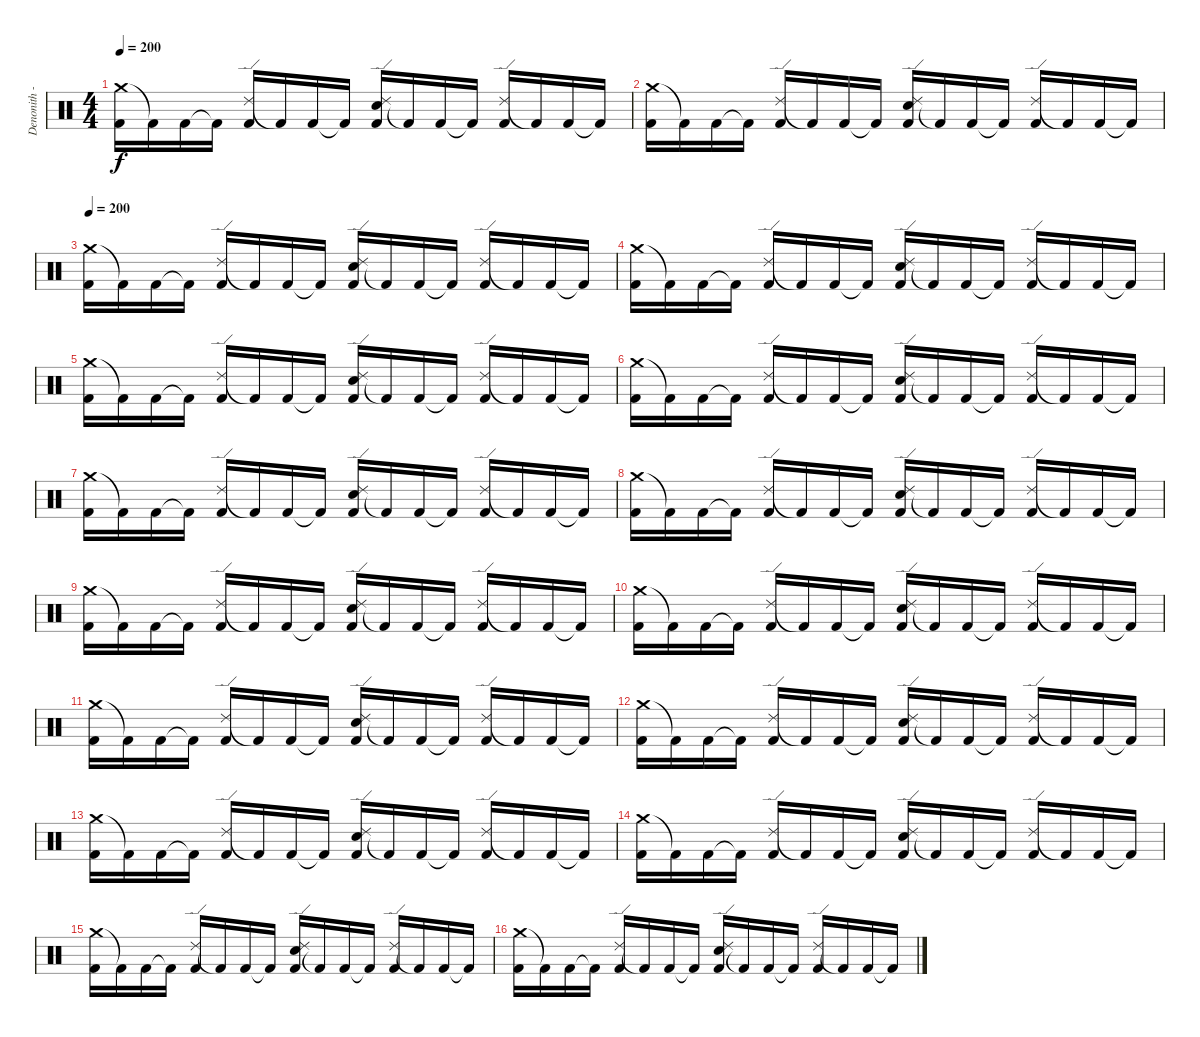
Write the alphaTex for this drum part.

\track ("Denonith - Spyros" "Denonith -") {instrument percussion}
\staff {score}
\articulation defaults
\ts (4 4)
\tempo 200
\clef neutral
\ks c
("Crash medium (hit)" "Kick (hit) 2").16{dy f} "Kick (hit) 2"{t}.16 "Kick (hit) 2".16 "Kick (hit) 2"{t}.16 ("Ride (edge) 2" "Kick (hit) 2").16 "Kick (hit) 2"{t}.16 "Kick (hit) 2".16 "Kick (hit) 2"{t}.16 ("Ride (edge) 2" "Electric Snare (hit)" "Kick (hit) 2").16 "Kick (hit) 2"{t}.16 "Kick (hit) 2".16 "Kick (hit) 2"{t}.16 ("Ride (edge) 2" "Kick (hit) 2").16 "Kick (hit) 2"{t}.16 "Kick (hit) 2".16 "Kick (hit) 2"{t}.16 |
("Crash medium (hit)" "Kick (hit) 2").16 "Kick (hit) 2"{t}.16 "Kick (hit) 2".16 "Kick (hit) 2"{t}.16 ("Ride (edge) 2" "Kick (hit) 2").16 "Kick (hit) 2"{t}.16 "Kick (hit) 2".16 "Kick (hit) 2"{t}.16 ("Ride (edge) 2" "Electric Snare (hit)" "Kick (hit) 2").16 "Kick (hit) 2"{t}.16 "Kick (hit) 2".16 "Kick (hit) 2"{t}.16 ("Ride (edge) 2" "Kick (hit) 2").16 "Kick (hit) 2"{t}.16 "Kick (hit) 2".16 "Kick (hit) 2"{t}.16 |
\tempo 200
("Crash medium (hit)" "Kick (hit) 2").16 "Kick (hit) 2"{t}.16 "Kick (hit) 2".16 "Kick (hit) 2"{t}.16 ("Ride (edge) 2" "Kick (hit) 2").16 "Kick (hit) 2"{t}.16 "Kick (hit) 2".16 "Kick (hit) 2"{t}.16 ("Ride (edge) 2" "Electric Snare (hit)" "Kick (hit) 2").16 "Kick (hit) 2"{t}.16 "Kick (hit) 2".16 "Kick (hit) 2"{t}.16 ("Ride (edge) 2" "Kick (hit) 2").16 "Kick (hit) 2"{t}.16 "Kick (hit) 2".16 "Kick (hit) 2"{t}.16 |
("Crash medium (hit)" "Kick (hit) 2").16 "Kick (hit) 2"{t}.16 "Kick (hit) 2".16 "Kick (hit) 2"{t}.16 ("Ride (edge) 2" "Kick (hit) 2").16 "Kick (hit) 2"{t}.16 "Kick (hit) 2".16 "Kick (hit) 2"{t}.16 ("Ride (edge) 2" "Electric Snare (hit)" "Kick (hit) 2").16 "Kick (hit) 2"{t}.16 "Kick (hit) 2".16 "Kick (hit) 2"{t}.16 ("Ride (edge) 2" "Kick (hit) 2").16 "Kick (hit) 2"{t}.16 "Kick (hit) 2".16 "Kick (hit) 2"{t}.16 |
("Crash medium (hit)" "Kick (hit) 2").16 "Kick (hit) 2"{t}.16 "Kick (hit) 2".16 "Kick (hit) 2"{t}.16 ("Ride (edge) 2" "Kick (hit) 2").16 "Kick (hit) 2"{t}.16 "Kick (hit) 2".16 "Kick (hit) 2"{t}.16 ("Ride (edge) 2" "Electric Snare (hit)" "Kick (hit) 2").16 "Kick (hit) 2"{t}.16 "Kick (hit) 2".16 "Kick (hit) 2"{t}.16 ("Ride (edge) 2" "Kick (hit) 2").16 "Kick (hit) 2"{t}.16 "Kick (hit) 2".16 "Kick (hit) 2"{t}.16 |
("Crash medium (hit)" "Kick (hit) 2").16 "Kick (hit) 2"{t}.16 "Kick (hit) 2".16 "Kick (hit) 2"{t}.16 ("Ride (edge) 2" "Kick (hit) 2").16 "Kick (hit) 2"{t}.16 "Kick (hit) 2".16 "Kick (hit) 2"{t}.16 ("Ride (edge) 2" "Electric Snare (hit)" "Kick (hit) 2").16 "Kick (hit) 2"{t}.16 "Kick (hit) 2".16 "Kick (hit) 2"{t}.16 ("Ride (edge) 2" "Kick (hit) 2").16 "Kick (hit) 2"{t}.16 "Kick (hit) 2".16 "Kick (hit) 2"{t}.16 |
("Crash medium (hit)" "Kick (hit) 2").16 "Kick (hit) 2"{t}.16 "Kick (hit) 2".16 "Kick (hit) 2"{t}.16 ("Ride (edge) 2" "Kick (hit) 2").16 "Kick (hit) 2"{t}.16 "Kick (hit) 2".16 "Kick (hit) 2"{t}.16 ("Ride (edge) 2" "Electric Snare (hit)" "Kick (hit) 2").16 "Kick (hit) 2"{t}.16 "Kick (hit) 2".16 "Kick (hit) 2"{t}.16 ("Ride (edge) 2" "Kick (hit) 2").16 "Kick (hit) 2"{t}.16 "Kick (hit) 2".16 "Kick (hit) 2"{t}.16 |
("Crash medium (hit)" "Kick (hit) 2").16 "Kick (hit) 2"{t}.16 "Kick (hit) 2".16 "Kick (hit) 2"{t}.16 ("Ride (edge) 2" "Kick (hit) 2").16 "Kick (hit) 2"{t}.16 "Kick (hit) 2".16 "Kick (hit) 2"{t}.16 ("Ride (edge) 2" "Electric Snare (hit)" "Kick (hit) 2").16 "Kick (hit) 2"{t}.16 "Kick (hit) 2".16 "Kick (hit) 2"{t}.16 ("Ride (edge) 2" "Kick (hit) 2").16 "Kick (hit) 2"{t}.16 "Kick (hit) 2".16 "Kick (hit) 2"{t}.16 |
("Crash medium (hit)" "Kick (hit) 2").16 "Kick (hit) 2"{t}.16 "Kick (hit) 2".16 "Kick (hit) 2"{t}.16 ("Ride (edge) 2" "Kick (hit) 2").16 "Kick (hit) 2"{t}.16 "Kick (hit) 2".16 "Kick (hit) 2"{t}.16 ("Ride (edge) 2" "Electric Snare (hit)" "Kick (hit) 2").16 "Kick (hit) 2"{t}.16 "Kick (hit) 2".16 "Kick (hit) 2"{t}.16 ("Ride (edge) 2" "Kick (hit) 2").16 "Kick (hit) 2"{t}.16 "Kick (hit) 2".16 "Kick (hit) 2"{t}.16 |
("Crash medium (hit)" "Kick (hit) 2").16 "Kick (hit) 2"{t}.16 "Kick (hit) 2".16 "Kick (hit) 2"{t}.16 ("Ride (edge) 2" "Kick (hit) 2").16 "Kick (hit) 2"{t}.16 "Kick (hit) 2".16 "Kick (hit) 2"{t}.16 ("Ride (edge) 2" "Electric Snare (hit)" "Kick (hit) 2").16 "Kick (hit) 2"{t}.16 "Kick (hit) 2".16 "Kick (hit) 2"{t}.16 ("Ride (edge) 2" "Kick (hit) 2").16 "Kick (hit) 2"{t}.16 "Kick (hit) 2".16 "Kick (hit) 2"{t}.16 |
("Crash medium (hit)" "Kick (hit) 2").16 "Kick (hit) 2"{t}.16 "Kick (hit) 2".16 "Kick (hit) 2"{t}.16 ("Ride (edge) 2" "Kick (hit) 2").16 "Kick (hit) 2"{t}.16 "Kick (hit) 2".16 "Kick (hit) 2"{t}.16 ("Ride (edge) 2" "Electric Snare (hit)" "Kick (hit) 2").16 "Kick (hit) 2"{t}.16 "Kick (hit) 2".16 "Kick (hit) 2"{t}.16 ("Ride (edge) 2" "Kick (hit) 2").16 "Kick (hit) 2"{t}.16 "Kick (hit) 2".16 "Kick (hit) 2"{t}.16 |
("Crash medium (hit)" "Kick (hit) 2").16 "Kick (hit) 2"{t}.16 "Kick (hit) 2".16 "Kick (hit) 2"{t}.16 ("Ride (edge) 2" "Kick (hit) 2").16 "Kick (hit) 2"{t}.16 "Kick (hit) 2".16 "Kick (hit) 2"{t}.16 ("Ride (edge) 2" "Electric Snare (hit)" "Kick (hit) 2").16 "Kick (hit) 2"{t}.16 "Kick (hit) 2".16 "Kick (hit) 2"{t}.16 ("Ride (edge) 2" "Kick (hit) 2").16 "Kick (hit) 2"{t}.16 "Kick (hit) 2".16 "Kick (hit) 2"{t}.16 |
("Crash medium (hit)" "Kick (hit) 2").16 "Kick (hit) 2"{t}.16 "Kick (hit) 2".16 "Kick (hit) 2"{t}.16 ("Ride (edge) 2" "Kick (hit) 2").16 "Kick (hit) 2"{t}.16 "Kick (hit) 2".16 "Kick (hit) 2"{t}.16 ("Ride (edge) 2" "Electric Snare (hit)" "Kick (hit) 2").16 "Kick (hit) 2"{t}.16 "Kick (hit) 2".16 "Kick (hit) 2"{t}.16 ("Ride (edge) 2" "Kick (hit) 2").16 "Kick (hit) 2"{t}.16 "Kick (hit) 2".16 "Kick (hit) 2"{t}.16 |
("Crash medium (hit)" "Kick (hit) 2").16 "Kick (hit) 2"{t}.16 "Kick (hit) 2".16 "Kick (hit) 2"{t}.16 ("Ride (edge) 2" "Kick (hit) 2").16 "Kick (hit) 2"{t}.16 "Kick (hit) 2".16 "Kick (hit) 2"{t}.16 ("Ride (edge) 2" "Electric Snare (hit)" "Kick (hit) 2").16 "Kick (hit) 2"{t}.16 "Kick (hit) 2".16 "Kick (hit) 2"{t}.16 ("Ride (edge) 2" "Kick (hit) 2").16 "Kick (hit) 2"{t}.16 "Kick (hit) 2".16 "Kick (hit) 2"{t}.16 |
("Crash medium (hit)" "Kick (hit) 2").16 "Kick (hit) 2"{t}.16 "Kick (hit) 2".16 "Kick (hit) 2"{t}.16 ("Ride (edge) 2" "Kick (hit) 2").16 "Kick (hit) 2"{t}.16 "Kick (hit) 2".16 "Kick (hit) 2"{t}.16 ("Ride (edge) 2" "Electric Snare (hit)" "Kick (hit) 2").16 "Kick (hit) 2"{t}.16 "Kick (hit) 2".16 "Kick (hit) 2"{t}.16 ("Ride (edge) 2" "Kick (hit) 2").16 "Kick (hit) 2"{t}.16 "Kick (hit) 2".16 "Kick (hit) 2"{t}.16 |
("Crash medium (hit)" "Kick (hit) 2").16 "Kick (hit) 2"{t}.16 "Kick (hit) 2".16 "Kick (hit) 2"{t}.16 ("Ride (edge) 2" "Kick (hit) 2").16 "Kick (hit) 2"{t}.16 "Kick (hit) 2".16 "Kick (hit) 2"{t}.16 ("Ride (edge) 2" "Electric Snare (hit)" "Kick (hit) 2").16 "Kick (hit) 2"{t}.16 "Kick (hit) 2".16 "Kick (hit) 2"{t}.16 ("Ride (edge) 2" "Kick (hit) 2").16 "Kick (hit) 2"{t}.16 "Kick (hit) 2".16 "Kick (hit) 2"{t}.16
